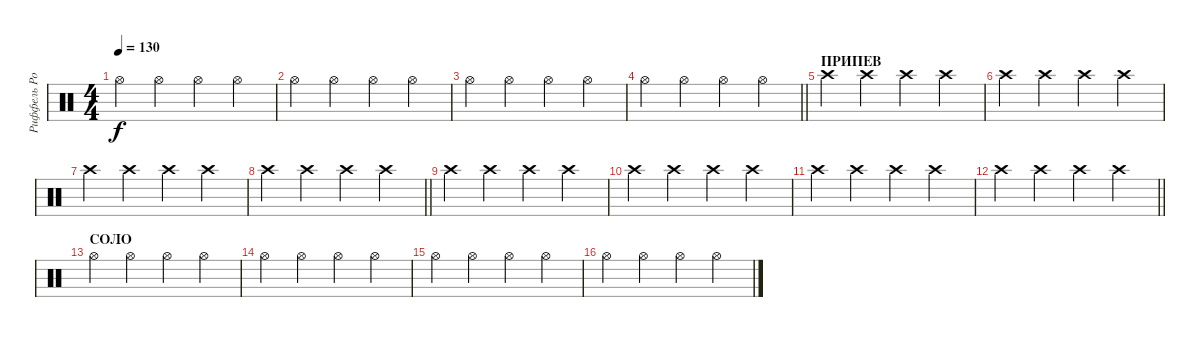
\track ("Риффель Роман(хэты)" "Риффель Ро") {instrument percussion}
\staff {score}
\articulation defaults
\ts (4 4)
\tempo 130
\clef neutral
\ks c "Hi-Hat (open)".4{dy f} "Hi-Hat (open)".4 "Hi-Hat (open)".4 "Hi-Hat (open)".4
|
"Hi-Hat (open)".4 "Hi-Hat (open)".4 "Hi-Hat (open)".4 "Hi-Hat (open)".4 |
"Hi-Hat (open)".4 "Hi-Hat (open)".4 "Hi-Hat (open)".4 "Hi-Hat (open)".4 |
\barLineRight lightlight "Hi-Hat (open)".4 "Hi-Hat (open)".4 "Hi-Hat (open)".4 "Hi-Hat (open)".4
|
\section ("" "ПРИПЕВ")
"Crash high (hit)".4 "Crash high (hit)".4 "Crash high (hit)".4 "Crash high (hit)".4 |
"Crash high (hit)".4 "Crash high (hit)".4 "Crash high (hit)".4 "Crash high (hit)".4 |
"Crash high (hit)".4 "Crash high (hit)".4 "Crash high (hit)".4 "Crash high (hit)".4 |
\barLineRight lightlight "Crash high (hit)".4 "Crash high (hit)".4 "Crash high (hit)".4 "Crash high (hit)".4
|
"Crash high (hit)".4 "Crash high (hit)".4 "Crash high (hit)".4 "Crash high (hit)".4 |
"Crash high (hit)".4 "Crash high (hit)".4 "Crash high (hit)".4 "Crash high (hit)".4 |
"Crash high (hit)".4 "Crash high (hit)".4 "Crash high (hit)".4 "Crash high (hit)".4 |
\barLineRight lightlight "Crash high (hit)".4 "Crash high (hit)".4 "Crash high (hit)".4 "Crash high (hit)".4
|
\section ("" "СОЛО")
"Hi-Hat (open)".4 "Hi-Hat (open)".4 "Hi-Hat (open)".4 "Hi-Hat (open)".4 |
"Hi-Hat (open)".4 "Hi-Hat (open)".4 "Hi-Hat (open)".4 "Hi-Hat (open)".4 |
"Hi-Hat (open)".4 "Hi-Hat (open)".4 "Hi-Hat (open)".4 "Hi-Hat (open)".4 |
"Hi-Hat (open)".4 "Hi-Hat (open)".4 "Hi-Hat (open)".4 "Hi-Hat (open)".4
